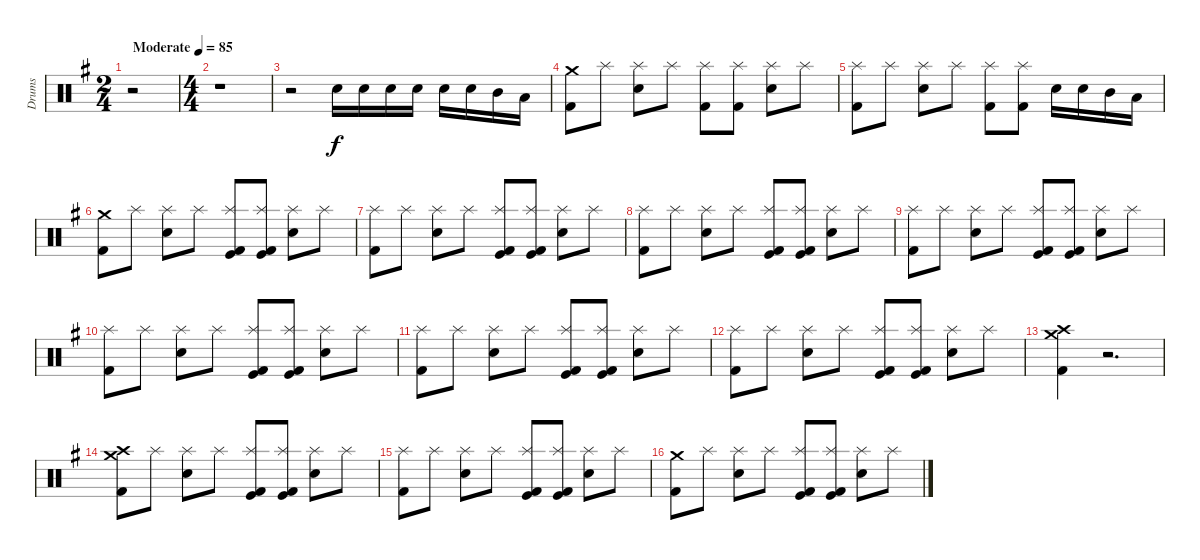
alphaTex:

\track ("Drums" "Drums") {instrument percussion}
\staff {score}
\articulation defaults
\ts (2 4)
\tempo (85 "Moderate")
\clef neutral
\ks eminor
r.2{dy f} |
\ts (4 4)
r.1 |
r.2 "Snare (hit) 2".16 "Snare (hit) 2".16 "Snare (hit) 2".16 "Snare (hit) 2".16 "Snare (hit) 2".16 "Snare (hit) 2".16 "Mid Tom (hit)".16 "Low Tom (hit)".16 |
("Crash medium (hit)" "Kick (hit) 2").8 "Splash (hit)".8 ("Splash (hit)" "Snare (hit) 2").8 "Splash (hit)".8 ("Splash (hit)" "Kick (hit) 2").8 ("Splash (hit)" "Kick (hit) 2").8 ("Splash (hit)" "Snare (hit) 2").8 "Splash (hit)".8 |
("Splash (hit)" "Kick (hit) 2").8 "Splash (hit)".8 ("Splash (hit)" "Snare (hit) 2").8 "Splash (hit)".8 ("Splash (hit)" "Kick (hit) 2").8 ("Splash (hit)" "Kick (hit) 2").8 "Snare (hit) 2".16 "Snare (hit) 2".16 "Mid Tom (hit)".16 "Low Tom (hit)".16 |
("Crash medium (hit)" "Kick (hit) 2").8 "Splash (hit)".8 ("Splash (hit)" "Snare (hit) 2").8 "Splash (hit)".8 ("Kick (hit)" "Splash (hit)" "Kick (hit) 2").8 ("Kick (hit)" "Splash (hit)" "Kick (hit) 2").8 ("Splash (hit)" "Snare (hit) 2").8 "Splash (hit)".8 |
("Splash (hit)" "Kick (hit) 2").8 "Splash (hit)".8 ("Splash (hit)" "Snare (hit) 2").8 "Splash (hit)".8 ("Kick (hit)" "Splash (hit)" "Kick (hit) 2").8 ("Kick (hit)" "Splash (hit)" "Kick (hit) 2").8 ("Splash (hit)" "Snare (hit) 2").8 "Splash (hit)".8 |
("Splash (hit)" "Kick (hit) 2").8 "Splash (hit)".8 ("Splash (hit)" "Snare (hit) 2").8 "Splash (hit)".8 ("Splash (hit)" "Kick (hit)" "Kick (hit) 2").8 ("Splash (hit)" "Kick (hit)" "Kick (hit) 2").8 ("Splash (hit)" "Snare (hit) 2").8 "Splash (hit)".8 |
("Splash (hit)" "Kick (hit) 2").8 "Splash (hit)".8 ("Splash (hit)" "Snare (hit) 2").8 "Splash (hit)".8 ("Splash (hit)" "Kick (hit)" "Kick (hit) 2").8 ("Splash (hit)" "Kick (hit)" "Kick (hit) 2").8 ("Splash (hit)" "Snare (hit) 2").8 "Splash (hit)".8 |
("Splash (hit)" "Kick (hit) 2").8 "Splash (hit)".8 ("Splash (hit)" "Snare (hit) 2").8 "Splash (hit)".8 ("Splash (hit)" "Kick (hit)" "Kick (hit) 2").8 ("Splash (hit)" "Kick (hit)" "Kick (hit) 2").8 ("Splash (hit)" "Snare (hit) 2").8 "Splash (hit)".8 |
("Splash (hit)" "Kick (hit) 2").8 "Splash (hit)".8 ("Splash (hit)" "Snare (hit) 2").8 "Splash (hit)".8 ("Splash (hit)" "Kick (hit)" "Kick (hit) 2").8 ("Splash (hit)" "Kick (hit)" "Kick (hit) 2").8 ("Splash (hit)" "Snare (hit) 2").8 "Splash (hit)".8 |
("Splash (hit)" "Kick (hit) 2").8 "Splash (hit)".8 ("Splash (hit)" "Snare (hit) 2").8 "Splash (hit)".8 ("Splash (hit)" "Kick (hit)" "Kick (hit) 2").8 ("Splash (hit)" "Kick (hit)" "Kick (hit) 2").8 ("Splash (hit)" "Snare (hit) 2").8 "Splash (hit)".8 |
("Crash high (hit)" "Crash medium (hit)" "Kick (hit) 2").4 r.2{d} |
("Kick (hit) 2" "Crash high (hit)" "Crash medium (hit)").8 "Splash (hit)".8 ("Splash (hit)" "Snare (hit) 2").8 "Splash (hit)".8 ("Splash (hit)" "Kick (hit)" "Kick (hit) 2").8 ("Splash (hit)" "Kick (hit)" "Kick (hit) 2").8 ("Splash (hit)" "Snare (hit) 2").8 "Splash (hit)".8 |
("Splash (hit)" "Kick (hit) 2").8 "Splash (hit)".8 ("Splash (hit)" "Snare (hit) 2").8 "Splash (hit)".8 ("Splash (hit)" "Kick (hit)" "Kick (hit) 2").8 ("Splash (hit)" "Kick (hit)" "Kick (hit) 2").8 ("Splash (hit)" "Snare (hit) 2").8 "Splash (hit)".8 |
("Kick (hit) 2" "Crash medium (hit)").8 "Splash (hit)".8 ("Splash (hit)" "Snare (hit) 2").8 "Splash (hit)".8 ("Splash (hit)" "Kick (hit)" "Kick (hit) 2").8 ("Splash (hit)" "Kick (hit)" "Kick (hit) 2").8 ("Splash (hit)" "Snare (hit) 2").8 "Splash (hit)".8
